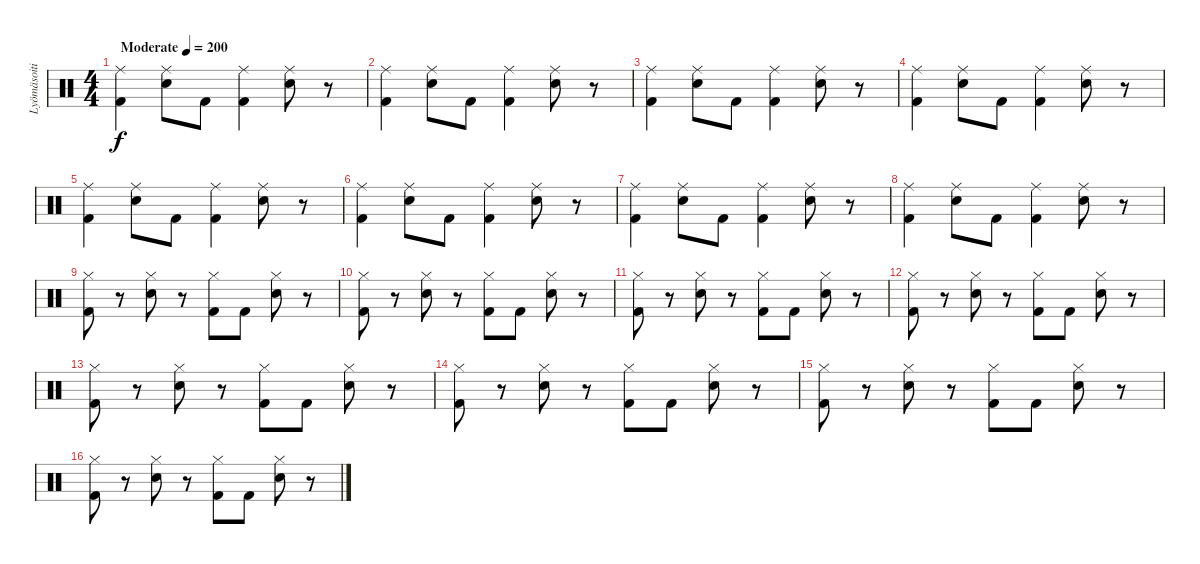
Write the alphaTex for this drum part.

\track ("Lyömäsoitin" "Lyömäsoiti") {instrument percussion}
\staff {score}
\articulation defaults
\ts (4 4)
\tempo (200 "Moderate")
\clef neutral
\ks c
("Ride (middle)" "Kick (hit) 2").4{dy f} ("Ride (middle)" "Snare (hit) 2").8 "Kick (hit) 2".8 ("Ride (middle)" "Kick (hit) 2").4 ("Ride (middle)" "Snare (hit) 2").8 r.8 |
("Ride (middle)" "Kick (hit) 2").4 ("Ride (middle)" "Snare (hit) 2").8 "Kick (hit) 2".8 ("Ride (middle)" "Kick (hit) 2").4 ("Ride (middle)" "Snare (hit) 2").8 r.8 |
("Ride (middle)" "Kick (hit) 2").4 ("Ride (middle)" "Snare (hit) 2").8 "Kick (hit) 2".8 ("Ride (middle)" "Kick (hit) 2").4 ("Ride (middle)" "Snare (hit) 2").8 r.8 |
("Ride (middle)" "Kick (hit) 2").4 ("Ride (middle)" "Snare (hit) 2").8 "Kick (hit) 2".8 ("Ride (middle)" "Kick (hit) 2").4 ("Ride (middle)" "Snare (hit) 2").8 r.8 |
("Ride (middle)" "Kick (hit) 2").4 ("Ride (middle)" "Snare (hit) 2").8 "Kick (hit) 2".8 ("Ride (middle)" "Kick (hit) 2").4 ("Ride (middle)" "Snare (hit) 2").8 r.8 |
("Ride (middle)" "Kick (hit) 2").4 ("Ride (middle)" "Snare (hit) 2").8 "Kick (hit) 2".8 ("Ride (middle)" "Kick (hit) 2").4 ("Ride (middle)" "Snare (hit) 2").8 r.8 |
("Ride (middle)" "Kick (hit) 2").4 ("Ride (middle)" "Snare (hit) 2").8 "Kick (hit) 2".8 ("Ride (middle)" "Kick (hit) 2").4 ("Ride (middle)" "Snare (hit) 2").8 r.8 |
("Ride (middle)" "Kick (hit) 2").4 ("Ride (middle)" "Snare (hit) 2").8 "Kick (hit) 2".8 ("Ride (middle)" "Kick (hit) 2").4 ("Ride (middle)" "Snare (hit) 2").8 r.8 |
("Hi-Hat (closed)" "Kick (hit) 2").8 r.8 ("Hi-Hat (closed)" "Snare (hit) 2").8 r.8 ("Hi-Hat (closed)" "Kick (hit) 2").8 "Kick (hit) 2".8 ("Hi-Hat (closed)" "Snare (hit) 2").8 r.8 |
("Hi-Hat (closed)" "Kick (hit) 2").8 r.8 ("Hi-Hat (closed)" "Snare (hit) 2").8 r.8 ("Hi-Hat (closed)" "Kick (hit) 2").8 "Kick (hit) 2".8 ("Hi-Hat (closed)" "Snare (hit) 2").8 r.8 |
("Hi-Hat (closed)" "Kick (hit) 2").8 r.8 ("Hi-Hat (closed)" "Snare (hit) 2").8 r.8 ("Hi-Hat (closed)" "Kick (hit) 2").8 "Kick (hit) 2".8 ("Hi-Hat (closed)" "Snare (hit) 2").8 r.8 |
("Hi-Hat (closed)" "Kick (hit) 2").8 r.8 ("Hi-Hat (closed)" "Snare (hit) 2").8 r.8 ("Hi-Hat (closed)" "Kick (hit) 2").8 "Kick (hit) 2".8 ("Hi-Hat (closed)" "Snare (hit) 2").8 r.8 |
("Hi-Hat (closed)" "Kick (hit) 2").8 r.8 ("Hi-Hat (closed)" "Snare (hit) 2").8 r.8 ("Hi-Hat (closed)" "Kick (hit) 2").8 "Kick (hit) 2".8 ("Hi-Hat (closed)" "Snare (hit) 2").8 r.8 |
("Hi-Hat (closed)" "Kick (hit) 2").8 r.8 ("Hi-Hat (closed)" "Snare (hit) 2").8 r.8 ("Hi-Hat (closed)" "Kick (hit) 2").8 "Kick (hit) 2".8 ("Hi-Hat (closed)" "Snare (hit) 2").8 r.8 |
("Hi-Hat (closed)" "Kick (hit) 2").8 r.8 ("Hi-Hat (closed)" "Snare (hit) 2").8 r.8 ("Hi-Hat (closed)" "Kick (hit) 2").8 "Kick (hit) 2".8 ("Hi-Hat (closed)" "Snare (hit) 2").8 r.8 |
("Hi-Hat (closed)" "Kick (hit) 2").8 r.8 ("Hi-Hat (closed)" "Snare (hit) 2").8 r.8 ("Hi-Hat (closed)" "Kick (hit) 2").8 "Kick (hit) 2".8 ("Hi-Hat (closed)" "Snare (hit) 2").8 r.8
